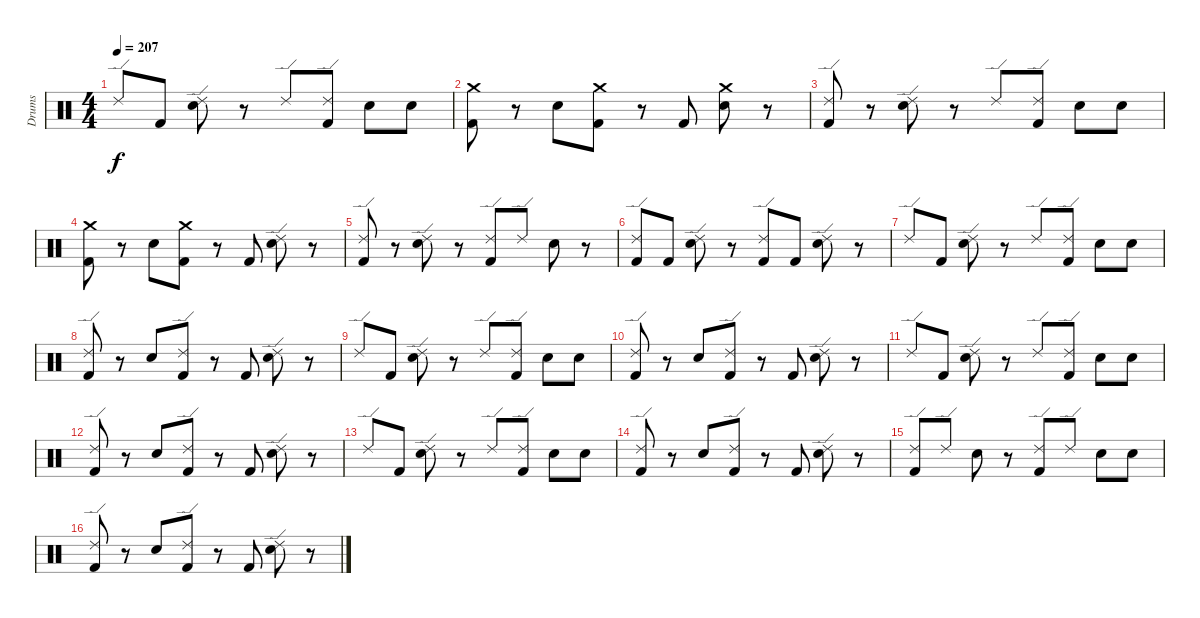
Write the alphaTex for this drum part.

\track ("Drums" "Drums") {instrument percussion}
\staff {score}
\articulation defaults
\ts (4 4)
\tempo 207
\clef neutral
\ks c "Ride (edge) 2".8{dy f} "Kick (hit) 2".8
("Ride (edge) 2" "Snare (hit) 2").8 r.8 "Ride (edge) 2".8 ("Ride (edge) 2" "Kick (hit) 2").8 "Snare (hit) 2".8 "Snare (hit) 2".8 |
("Crash medium (hit)" "Kick (hit) 2").8 r.8 "Snare (hit) 2".8 ("Crash medium (hit)" "Kick (hit) 2").8 r.8 "Kick (hit) 2".8 ("Crash medium (hit)" "Snare (hit) 2").8 r.8 |
("Ride (edge) 2" "Kick (hit) 2").8 r.8 ("Ride (edge) 2" "Snare (hit) 2").8 r.8 "Ride (edge) 2".8 ("Ride (edge) 2" "Kick (hit) 2").8 "Snare (hit) 2".8 "Snare (hit) 2".8 |
("Crash medium (hit)" "Kick (hit) 2").8 r.8 "Snare (hit) 2".8 ("Crash medium (hit)" "Kick (hit) 2").8 r.8 "Kick (hit) 2".8 ("Ride (edge) 2" "Snare (hit) 2").8 r.8 |
("Ride (edge) 2" "Kick (hit) 2").8 r.8 ("Ride (edge) 2" "Snare (hit) 2").8 r.8 ("Ride (edge) 2" "Kick (hit) 2").8 "Ride (edge) 2".8 "Snare (hit) 2".8 r.8 |
("Ride (edge) 2" "Kick (hit) 2").8 "Kick (hit) 2".8 ("Ride (edge) 2" "Snare (hit) 2").8 r.8 ("Ride (edge) 2" "Kick (hit) 2").8 "Kick (hit) 2".8 ("Ride (edge) 2" "Snare (hit) 2").8 r.8 |
"Ride (edge) 2".8 "Kick (hit) 2".8 ("Ride (edge) 2" "Snare (hit) 2").8 r.8 "Ride (edge) 2".8 ("Ride (edge) 2" "Kick (hit) 2").8 "Snare (hit) 2".8 "Snare (hit) 2".8 |
("Ride (edge) 2" "Kick (hit) 2").8 r.8 "Snare (hit) 2".8 ("Ride (edge) 2" "Kick (hit) 2").8 r.8 "Kick (hit) 2".8 ("Ride (edge) 2" "Snare (hit) 2").8 r.8 |
"Ride (edge) 2".8 "Kick (hit) 2".8 ("Ride (edge) 2" "Snare (hit) 2").8 r.8 "Ride (edge) 2".8 ("Ride (edge) 2" "Kick (hit) 2").8 "Snare (hit) 2".8 "Snare (hit) 2".8 |
("Ride (edge) 2" "Kick (hit) 2").8 r.8 "Snare (hit) 2".8 ("Ride (edge) 2" "Kick (hit) 2").8 r.8 "Kick (hit) 2".8 ("Ride (edge) 2" "Snare (hit) 2").8 r.8 |
"Ride (edge) 2".8 "Kick (hit) 2".8 ("Ride (edge) 2" "Snare (hit) 2").8 r.8 "Ride (edge) 2".8 ("Ride (edge) 2" "Kick (hit) 2").8 "Snare (hit) 2".8 "Snare (hit) 2".8 |
("Ride (edge) 2" "Kick (hit) 2").8 r.8 "Snare (hit) 2".8 ("Ride (edge) 2" "Kick (hit) 2").8 r.8 "Kick (hit) 2".8 ("Ride (edge) 2" "Snare (hit) 2").8 r.8 |
"Ride (edge) 2".8 "Kick (hit) 2".8 ("Ride (edge) 2" "Snare (hit) 2").8 r.8 "Ride (edge) 2".8 ("Ride (edge) 2" "Kick (hit) 2").8 "Snare (hit) 2".8 "Snare (hit) 2".8 |
("Ride (edge) 2" "Kick (hit) 2").8 r.8 "Snare (hit) 2".8 ("Ride (edge) 2" "Kick (hit) 2").8 r.8 "Kick (hit) 2".8 ("Ride (edge) 2" "Snare (hit) 2").8 r.8 |
("Ride (edge) 2" "Kick (hit) 2").8 "Ride (edge) 2".8 "Snare (hit) 2".8 r.8 ("Ride (edge) 2" "Kick (hit) 2").8 "Ride (edge) 2".8 "Snare (hit) 2".8 "Snare (hit) 2".8 |
("Ride (edge) 2" "Kick (hit) 2").8 r.8 "Snare (hit) 2".8 ("Ride (edge) 2" "Kick (hit) 2").8 r.8 "Kick (hit) 2".8 ("Ride (edge) 2" "Snare (hit) 2").8 r.8
